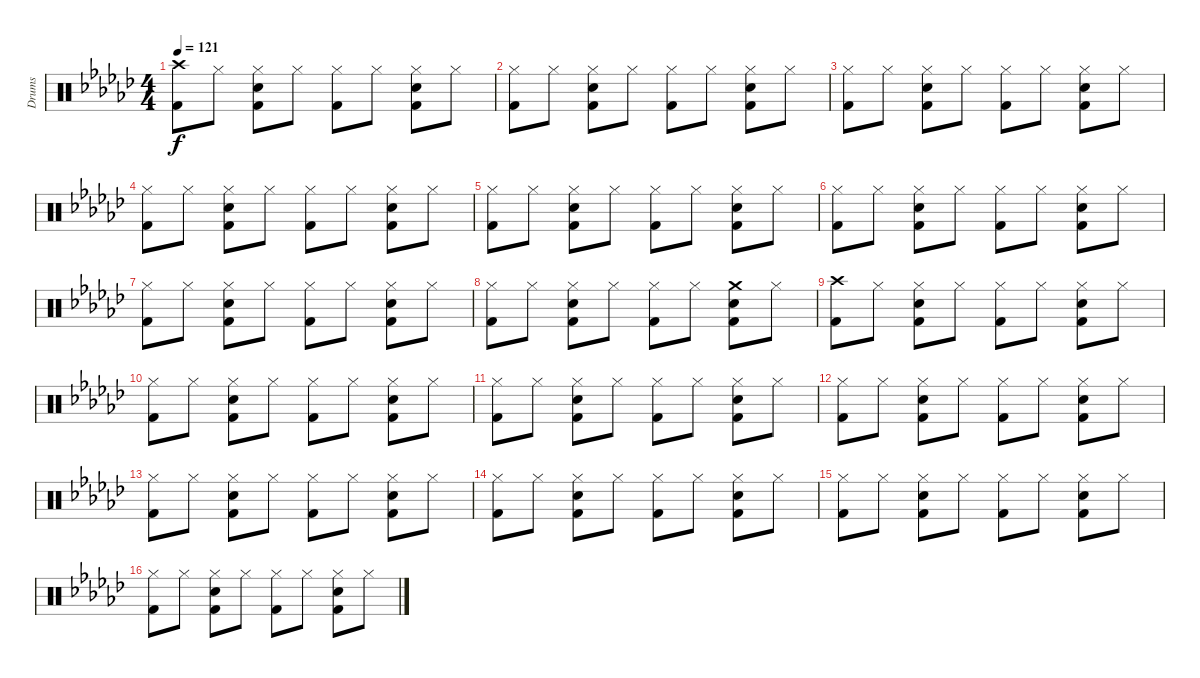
\track ("Drums" "Drums") {instrument percussion}
\staff {score}
\articulation defaults
\ts (4 4)
\tempo 121
\clef neutral
\ks ebminor
("Crash high (hit)" "Kick (hit) 2").8{dy f} "Hi-Hat (closed)".8 ("Hi-Hat (closed)" "Snare (hit) 2" "Kick (hit) 2").8 "Hi-Hat (closed)".8 ("Hi-Hat (closed)" "Kick (hit) 2").8 "Hi-Hat (closed)".8 ("Hi-Hat (closed)" "Snare (hit) 2" "Kick (hit) 2").8 "Hi-Hat (closed)".8 |
("Hi-Hat (closed)" "Kick (hit) 2").8 "Hi-Hat (closed)".8 ("Hi-Hat (closed)" "Snare (hit) 2" "Kick (hit) 2").8 "Hi-Hat (closed)".8 ("Hi-Hat (closed)" "Kick (hit) 2").8 "Hi-Hat (closed)".8 ("Hi-Hat (closed)" "Snare (hit) 2" "Kick (hit) 2").8 "Hi-Hat (closed)".8 |
("Hi-Hat (closed)" "Kick (hit) 2").8 "Hi-Hat (closed)".8 ("Hi-Hat (closed)" "Snare (hit) 2" "Kick (hit) 2").8 "Hi-Hat (closed)".8 ("Hi-Hat (closed)" "Kick (hit) 2").8 "Hi-Hat (closed)".8 ("Hi-Hat (closed)" "Snare (hit) 2" "Kick (hit) 2").8 "Hi-Hat (closed)".8 |
("Hi-Hat (closed)" "Kick (hit) 2").8 "Hi-Hat (closed)".8 ("Hi-Hat (closed)" "Snare (hit) 2" "Kick (hit) 2").8 "Hi-Hat (closed)".8 ("Hi-Hat (closed)" "Kick (hit) 2").8 "Hi-Hat (closed)".8 ("Hi-Hat (closed)" "Snare (hit) 2" "Kick (hit) 2").8 "Hi-Hat (closed)".8 |
("Hi-Hat (closed)" "Kick (hit) 2").8 "Hi-Hat (closed)".8 ("Hi-Hat (closed)" "Snare (hit) 2" "Kick (hit) 2").8 "Hi-Hat (closed)".8 ("Hi-Hat (closed)" "Kick (hit) 2").8 "Hi-Hat (closed)".8 ("Hi-Hat (closed)" "Snare (hit) 2" "Kick (hit) 2").8 "Hi-Hat (closed)".8 |
("Hi-Hat (closed)" "Kick (hit) 2").8 "Hi-Hat (closed)".8 ("Hi-Hat (closed)" "Snare (hit) 2" "Kick (hit) 2").8 "Hi-Hat (closed)".8 ("Hi-Hat (closed)" "Kick (hit) 2").8 "Hi-Hat (closed)".8 ("Hi-Hat (closed)" "Snare (hit) 2" "Kick (hit) 2").8 "Hi-Hat (closed)".8 |
("Hi-Hat (closed)" "Kick (hit) 2").8 "Hi-Hat (closed)".8 ("Hi-Hat (closed)" "Snare (hit) 2" "Kick (hit) 2").8 "Hi-Hat (closed)".8 ("Hi-Hat (closed)" "Kick (hit) 2").8 "Hi-Hat (closed)".8 ("Hi-Hat (closed)" "Snare (hit) 2" "Kick (hit) 2").8 "Hi-Hat (closed)".8 |
("Hi-Hat (closed)" "Kick (hit) 2").8 "Hi-Hat (closed)".8 ("Hi-Hat (closed)" "Snare (hit) 2" "Kick (hit) 2").8 "Hi-Hat (closed)".8 ("Hi-Hat (closed)" "Kick (hit) 2").8 "Hi-Hat (closed)".8 ("Crash medium (hit)" "Snare (hit) 2" "Kick (hit) 2").8 "Hi-Hat (closed)".8 |
("Crash high (hit)" "Kick (hit) 2").8 "Hi-Hat (closed)".8 ("Hi-Hat (closed)" "Snare (hit) 2" "Kick (hit) 2").8 "Hi-Hat (closed)".8 ("Hi-Hat (closed)" "Kick (hit) 2").8 "Hi-Hat (closed)".8 ("Hi-Hat (closed)" "Snare (hit) 2" "Kick (hit) 2").8 "Hi-Hat (closed)".8 |
("Hi-Hat (closed)" "Kick (hit) 2").8 "Hi-Hat (closed)".8 ("Hi-Hat (closed)" "Snare (hit) 2" "Kick (hit) 2").8 "Hi-Hat (closed)".8 ("Hi-Hat (closed)" "Kick (hit) 2").8 "Hi-Hat (closed)".8 ("Hi-Hat (closed)" "Snare (hit) 2" "Kick (hit) 2").8 "Hi-Hat (closed)".8 |
("Hi-Hat (closed)" "Kick (hit) 2").8 "Hi-Hat (closed)".8 ("Hi-Hat (closed)" "Snare (hit) 2" "Kick (hit) 2").8 "Hi-Hat (closed)".8 ("Hi-Hat (closed)" "Kick (hit) 2").8 "Hi-Hat (closed)".8 ("Hi-Hat (closed)" "Snare (hit) 2" "Kick (hit) 2").8 "Hi-Hat (closed)".8 |
("Hi-Hat (closed)" "Kick (hit) 2").8 "Hi-Hat (closed)".8 ("Hi-Hat (closed)" "Snare (hit) 2" "Kick (hit) 2").8 "Hi-Hat (closed)".8 ("Hi-Hat (closed)" "Kick (hit) 2").8 "Hi-Hat (closed)".8 ("Hi-Hat (closed)" "Snare (hit) 2" "Kick (hit) 2").8 "Hi-Hat (closed)".8 |
("Hi-Hat (closed)" "Kick (hit) 2").8 "Hi-Hat (closed)".8 ("Hi-Hat (closed)" "Snare (hit) 2" "Kick (hit) 2").8 "Hi-Hat (closed)".8 ("Hi-Hat (closed)" "Kick (hit) 2").8 "Hi-Hat (closed)".8 ("Hi-Hat (closed)" "Snare (hit) 2" "Kick (hit) 2").8 "Hi-Hat (closed)".8 |
("Hi-Hat (closed)" "Kick (hit) 2").8 "Hi-Hat (closed)".8 ("Hi-Hat (closed)" "Snare (hit) 2" "Kick (hit) 2").8 "Hi-Hat (closed)".8 ("Hi-Hat (closed)" "Kick (hit) 2").8 "Hi-Hat (closed)".8 ("Hi-Hat (closed)" "Snare (hit) 2" "Kick (hit) 2").8 "Hi-Hat (closed)".8 |
("Hi-Hat (closed)" "Kick (hit) 2").8 "Hi-Hat (closed)".8 ("Hi-Hat (closed)" "Snare (hit) 2" "Kick (hit) 2").8 "Hi-Hat (closed)".8 ("Hi-Hat (closed)" "Kick (hit) 2").8 "Hi-Hat (closed)".8 ("Hi-Hat (closed)" "Snare (hit) 2" "Kick (hit) 2").8 "Hi-Hat (closed)".8 |
("Hi-Hat (closed)" "Kick (hit) 2").8 "Hi-Hat (closed)".8 ("Hi-Hat (closed)" "Snare (hit) 2" "Kick (hit) 2").8 "Hi-Hat (closed)".8 ("Hi-Hat (closed)" "Kick (hit) 2").8 "Hi-Hat (closed)".8 ("Hi-Hat (closed)" "Snare (hit) 2" "Kick (hit) 2").8 "Hi-Hat (closed)".8
